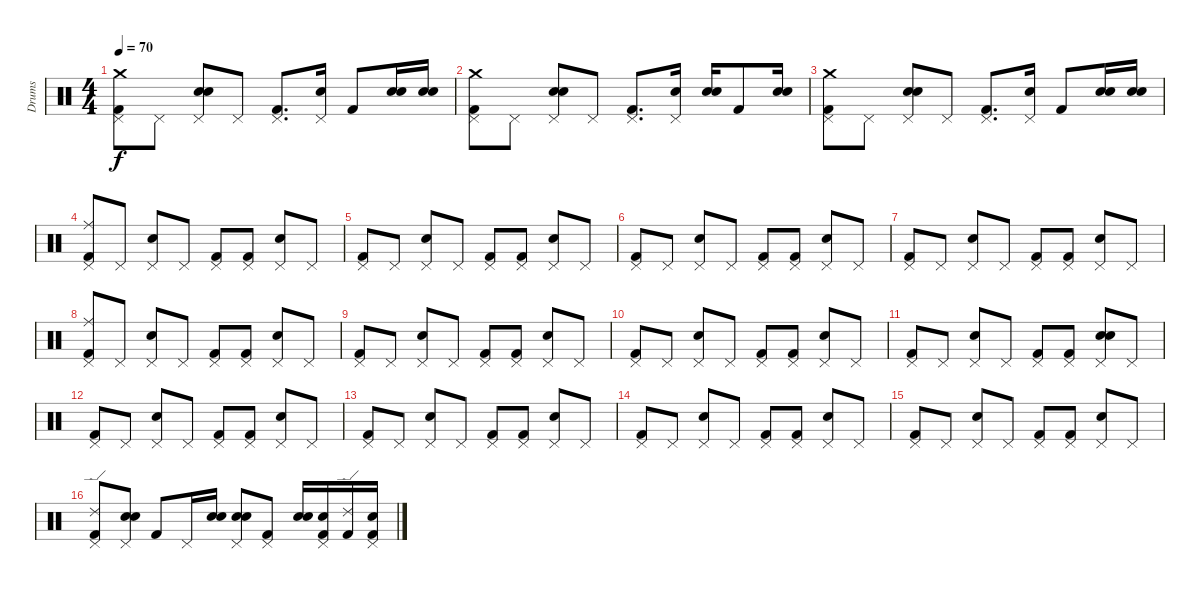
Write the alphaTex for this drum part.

\track ("Drums" "Drums") {instrument percussion}
\staff {score}
\articulation defaults
\ts (4 4)
\tempo 70
\clef neutral
\ks c
("Crash medium (hit)" "Pedal Hi-Hat (hit)" "Kick (hit) 2").8{dy f} "Pedal Hi-Hat (hit)".8 ("Pedal Hi-Hat (hit)" "Electric Snare (hit)" "Snare (hit) 2").8 "Pedal Hi-Hat (hit)".8 ("Pedal Hi-Hat (hit)" "Kick (hit) 2").8{d} ("Pedal Hi-Hat (hit)" "Snare (hit) 2").16 "Kick (hit) 2".8 ("Electric Snare (hit)" "Snare (hit) 2").16 ("Electric Snare (hit)" "Snare (hit) 2").16 |
("Crash medium (hit)" "Pedal Hi-Hat (hit)" "Kick (hit) 2").8 "Pedal Hi-Hat (hit)".8 ("Pedal Hi-Hat (hit)" "Electric Snare (hit)" "Snare (hit) 2").8 "Pedal Hi-Hat (hit)".8 ("Pedal Hi-Hat (hit)" "Kick (hit) 2").8{d} ("Pedal Hi-Hat (hit)" "Snare (hit) 2").16 ("Electric Snare (hit)" "Snare (hit) 2").16 "Kick (hit) 2".8 ("Electric Snare (hit)" "Snare (hit) 2").16 |
("Crash medium (hit)" "Pedal Hi-Hat (hit)" "Kick (hit) 2").8 "Pedal Hi-Hat (hit)".8 ("Pedal Hi-Hat (hit)" "Electric Snare (hit)" "Snare (hit) 2").8 "Pedal Hi-Hat (hit)".8 ("Pedal Hi-Hat (hit)" "Kick (hit) 2").8{d} ("Pedal Hi-Hat (hit)" "Snare (hit) 2").16 "Kick (hit) 2".8 ("Electric Snare (hit)" "Snare (hit) 2").16 ("Electric Snare (hit)" "Snare (hit) 2").16 |
("Pedal Hi-Hat (hit)" "Ride (middle)" "Kick (hit) 2").8 "Pedal Hi-Hat (hit)".8 ("Pedal Hi-Hat (hit)" "Snare (hit) 2").8 "Pedal Hi-Hat (hit)".8 ("Pedal Hi-Hat (hit)" "Kick (hit) 2").8 ("Pedal Hi-Hat (hit)" "Kick (hit) 2").8 ("Pedal Hi-Hat (hit)" "Snare (hit) 2").8 "Pedal Hi-Hat (hit)".8 |
("Pedal Hi-Hat (hit)" "Kick (hit) 2").8 "Pedal Hi-Hat (hit)".8 ("Pedal Hi-Hat (hit)" "Snare (hit) 2").8 "Pedal Hi-Hat (hit)".8 ("Pedal Hi-Hat (hit)" "Kick (hit) 2").8 ("Pedal Hi-Hat (hit)" "Kick (hit) 2").8 ("Pedal Hi-Hat (hit)" "Snare (hit) 2").8 "Pedal Hi-Hat (hit)".8 |
("Pedal Hi-Hat (hit)" "Kick (hit) 2").8 "Pedal Hi-Hat (hit)".8 ("Pedal Hi-Hat (hit)" "Snare (hit) 2").8 "Pedal Hi-Hat (hit)".8 ("Pedal Hi-Hat (hit)" "Kick (hit) 2").8 ("Pedal Hi-Hat (hit)" "Kick (hit) 2").8 ("Pedal Hi-Hat (hit)" "Snare (hit) 2").8 "Pedal Hi-Hat (hit)".8 |
("Pedal Hi-Hat (hit)" "Kick (hit) 2").8 "Pedal Hi-Hat (hit)".8 ("Pedal Hi-Hat (hit)" "Snare (hit) 2").8 "Pedal Hi-Hat (hit)".8 ("Pedal Hi-Hat (hit)" "Kick (hit) 2").8 ("Pedal Hi-Hat (hit)" "Kick (hit) 2").8 ("Pedal Hi-Hat (hit)" "Snare (hit) 2").8 "Pedal Hi-Hat (hit)".8 |
("Pedal Hi-Hat (hit)" "Ride (middle)" "Kick (hit) 2").8 "Pedal Hi-Hat (hit)".8 ("Pedal Hi-Hat (hit)" "Snare (hit) 2").8 "Pedal Hi-Hat (hit)".8 ("Pedal Hi-Hat (hit)" "Kick (hit) 2").8 ("Pedal Hi-Hat (hit)" "Kick (hit) 2").8 ("Pedal Hi-Hat (hit)" "Snare (hit) 2").8 "Pedal Hi-Hat (hit)".8 |
("Pedal Hi-Hat (hit)" "Kick (hit) 2").8 "Pedal Hi-Hat (hit)".8 ("Pedal Hi-Hat (hit)" "Snare (hit) 2").8 "Pedal Hi-Hat (hit)".8 ("Pedal Hi-Hat (hit)" "Kick (hit) 2").8 ("Pedal Hi-Hat (hit)" "Kick (hit) 2").8 ("Pedal Hi-Hat (hit)" "Snare (hit) 2").8 "Pedal Hi-Hat (hit)".8 |
("Pedal Hi-Hat (hit)" "Kick (hit) 2").8 "Pedal Hi-Hat (hit)".8 ("Pedal Hi-Hat (hit)" "Snare (hit) 2").8 "Pedal Hi-Hat (hit)".8 ("Pedal Hi-Hat (hit)" "Kick (hit) 2").8 ("Pedal Hi-Hat (hit)" "Kick (hit) 2").8 ("Pedal Hi-Hat (hit)" "Snare (hit) 2").8 "Pedal Hi-Hat (hit)".8 |
("Pedal Hi-Hat (hit)" "Kick (hit) 2").8 "Pedal Hi-Hat (hit)".8 ("Pedal Hi-Hat (hit)" "Snare (hit) 2").8 "Pedal Hi-Hat (hit)".8 ("Pedal Hi-Hat (hit)" "Kick (hit) 2").8 ("Pedal Hi-Hat (hit)" "Kick (hit) 2").8 ("Pedal Hi-Hat (hit)" "Electric Snare (hit)" "Snare (hit) 2").8 "Pedal Hi-Hat (hit)".8 |
("Pedal Hi-Hat (hit)" "Kick (hit) 2").8 "Pedal Hi-Hat (hit)".8 ("Pedal Hi-Hat (hit)" "Snare (hit) 2").8 "Pedal Hi-Hat (hit)".8 ("Pedal Hi-Hat (hit)" "Kick (hit) 2").8 ("Pedal Hi-Hat (hit)" "Kick (hit) 2").8 ("Pedal Hi-Hat (hit)" "Snare (hit) 2").8 "Pedal Hi-Hat (hit)".8 |
("Pedal Hi-Hat (hit)" "Kick (hit) 2").8 "Pedal Hi-Hat (hit)".8 ("Pedal Hi-Hat (hit)" "Snare (hit) 2").8 "Pedal Hi-Hat (hit)".8 ("Pedal Hi-Hat (hit)" "Kick (hit) 2").8 ("Pedal Hi-Hat (hit)" "Kick (hit) 2").8 ("Pedal Hi-Hat (hit)" "Snare (hit) 2").8 "Pedal Hi-Hat (hit)".8 |
("Pedal Hi-Hat (hit)" "Kick (hit) 2").8 "Pedal Hi-Hat (hit)".8 ("Pedal Hi-Hat (hit)" "Snare (hit) 2").8 "Pedal Hi-Hat (hit)".8 ("Pedal Hi-Hat (hit)" "Kick (hit) 2").8 ("Pedal Hi-Hat (hit)" "Kick (hit) 2").8 ("Pedal Hi-Hat (hit)" "Snare (hit) 2").8 "Pedal Hi-Hat (hit)".8 |
("Pedal Hi-Hat (hit)" "Kick (hit) 2").8 "Pedal Hi-Hat (hit)".8 ("Pedal Hi-Hat (hit)" "Snare (hit) 2").8 "Pedal Hi-Hat (hit)".8 ("Pedal Hi-Hat (hit)" "Kick (hit) 2").8 ("Pedal Hi-Hat (hit)" "Kick (hit) 2").8 ("Pedal Hi-Hat (hit)" "Snare (hit) 2").8 "Pedal Hi-Hat (hit)".8 |
("Ride (edge) 2" "Pedal Hi-Hat (hit)" "Kick (hit) 2").8 ("Pedal Hi-Hat (hit)" "Electric Snare (hit)" "Snare (hit) 2").8 "Kick (hit) 2".8 "Pedal Hi-Hat (hit)".16 ("Snare (hit) 2" "Electric Snare (hit)").16 ("Pedal Hi-Hat (hit)" "Snare (hit) 2" "Electric Snare (hit)").8 ("Pedal Hi-Hat (hit)" "Kick (hit) 2").8 ("Electric Snare (hit)" "Snare (hit) 2").16 ("Pedal Hi-Hat (hit)" "Electric Snare (hit)" "Kick (hit) 2").16 ("Ride (edge) 2" "Kick (hit) 2").16 ("Pedal Hi-Hat (hit)" "Electric Snare (hit)" "Kick (hit) 2").16
